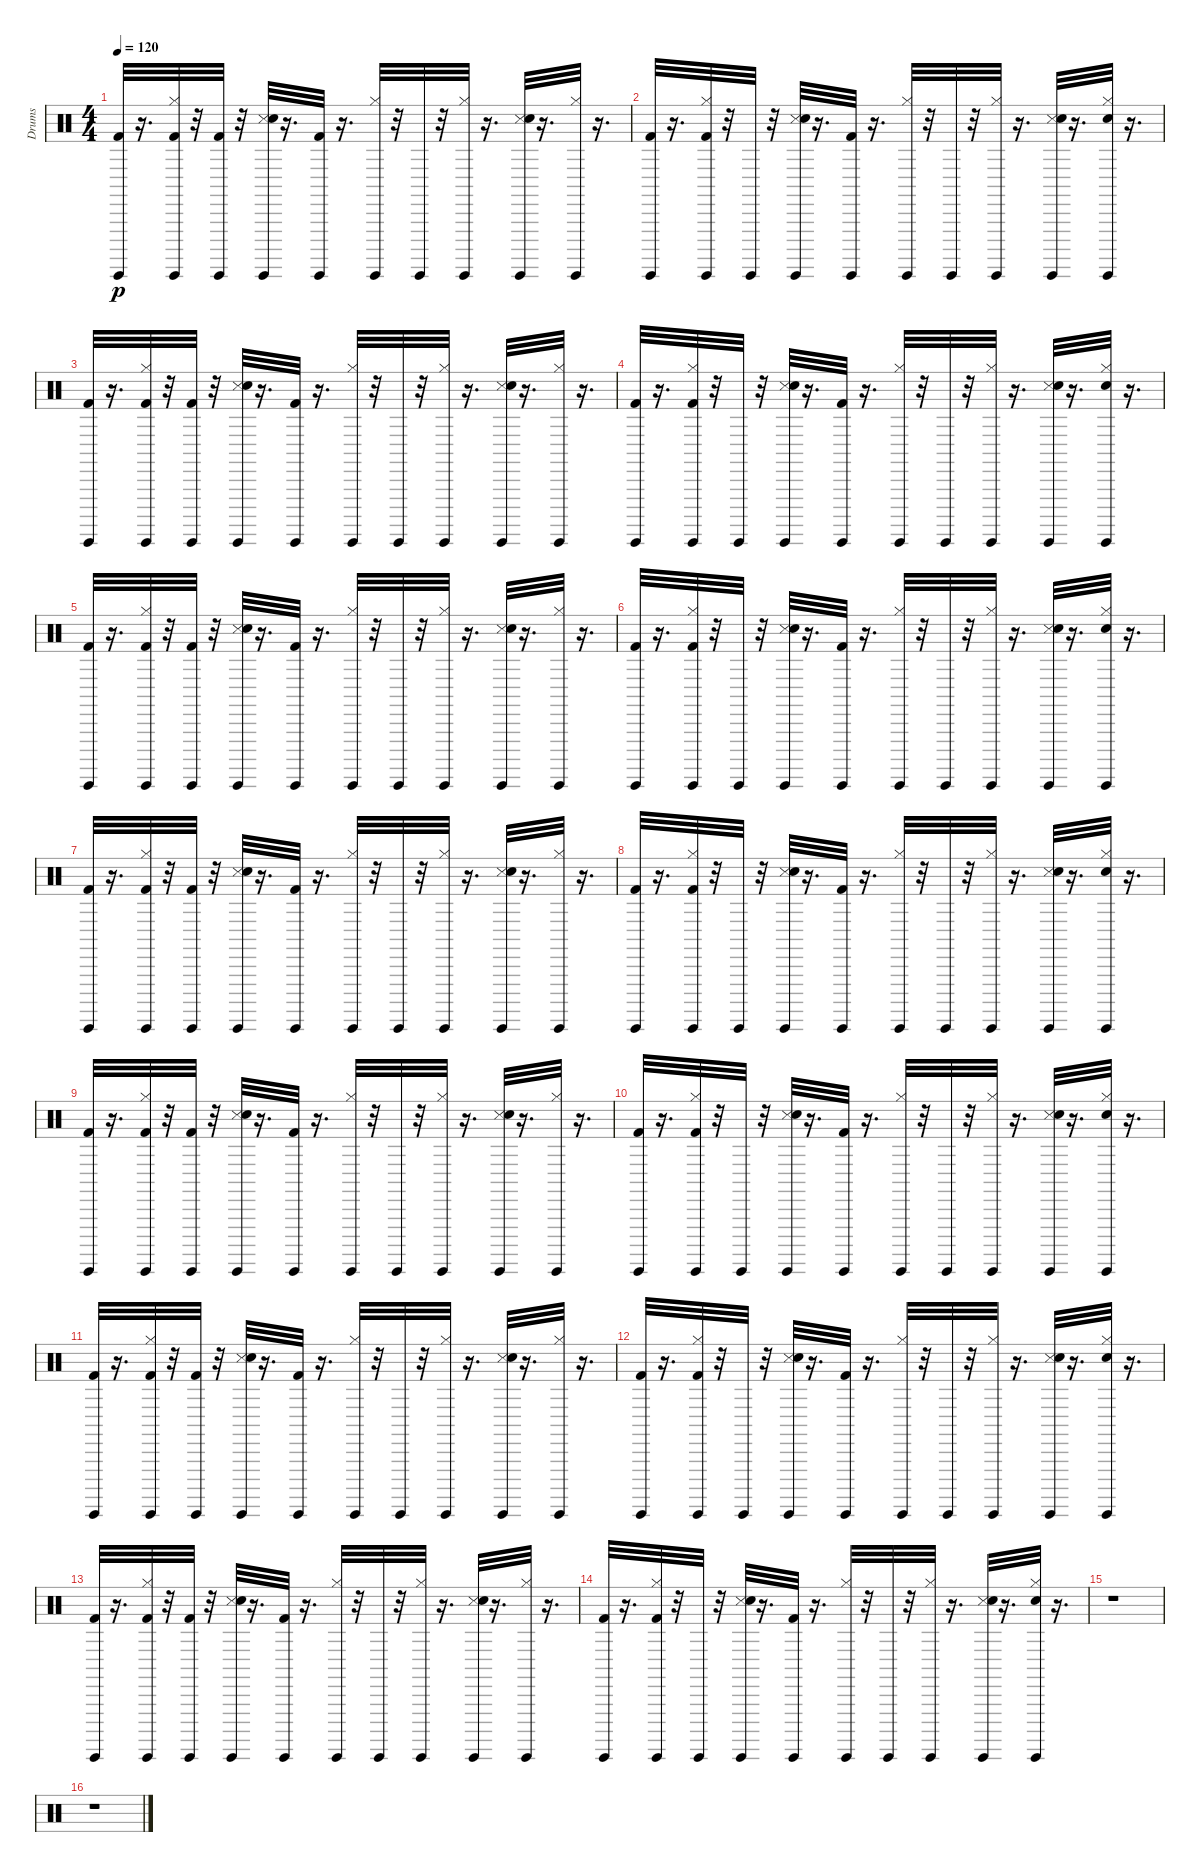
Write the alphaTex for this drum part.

\track ("Drums" "Drums") {instrument percussion}
\staff {score}
\articulation defaults
\ts (4 4)
\tempo 120
\clef neutral
\ks c
("Kick (hit) 2" "Guiro (hit)").32{dy p} r.16{d} ("Kick (hit) 2" "Hi-Hat (closed)" "Guiro (hit)").32 r.32 ("Kick (hit) 2" "Guiro (hit)").32 r.32 ("Metronome (hit)" "Snare (hit) 2" "Guiro (hit)").32 r.16{d} ("Kick (hit) 2" "Guiro (hit)").32 r.16{d} ("Hi-Hat (closed)" "Guiro (hit)").32 r.32 "Guiro (hit)".32 r.32 ("Hi-Hat (closed)" "Guiro (hit)").32 r.16{d} ("Metronome (hit)" "Snare (hit) 2" "Guiro (hit)").32 r.16{d} ("Hi-Hat (closed)" "Guiro (hit)").32 r.16{d} |
("Kick (hit) 2" "Guiro (hit)").32 r.16{d} ("Kick (hit) 2" "Hi-Hat (closed)" "Guiro (hit)").32 r.32 "Guiro (hit)".32 r.32 ("Metronome (hit)" "Snare (hit) 2" "Guiro (hit)").32 r.16{d} ("Kick (hit) 2" "Guiro (hit)").32 r.16{d} ("Hi-Hat (closed)" "Guiro (hit)").32 r.32 "Guiro (hit)".32 r.32 ("Hi-Hat (closed)" "Guiro (hit)").32 r.16{d} ("Metronome (hit)" "Snare (hit) 2" "Guiro (hit)").32 r.16{d} ("Snare (hit) 2" "Hi-Hat (closed)" "Guiro (hit)").32 r.16{d} |
("Kick (hit) 2" "Guiro (hit)").32 r.16{d} ("Kick (hit) 2" "Hi-Hat (closed)" "Guiro (hit)").32 r.32 ("Kick (hit) 2" "Guiro (hit)").32 r.32 ("Metronome (hit)" "Snare (hit) 2" "Guiro (hit)").32 r.16{d} ("Kick (hit) 2" "Guiro (hit)").32 r.16{d} ("Hi-Hat (closed)" "Guiro (hit)").32 r.32 "Guiro (hit)".32 r.32 ("Hi-Hat (closed)" "Guiro (hit)").32 r.16{d} ("Metronome (hit)" "Snare (hit) 2" "Guiro (hit)").32 r.16{d} ("Hi-Hat (closed)" "Guiro (hit)").32 r.16{d} |
("Kick (hit) 2" "Guiro (hit)").32 r.16{d} ("Kick (hit) 2" "Hi-Hat (closed)" "Guiro (hit)").32 r.32 "Guiro (hit)".32 r.32 ("Metronome (hit)" "Snare (hit) 2" "Guiro (hit)").32 r.16{d} ("Kick (hit) 2" "Guiro (hit)").32 r.16{d} ("Hi-Hat (closed)" "Guiro (hit)").32 r.32 "Guiro (hit)".32 r.32 ("Hi-Hat (closed)" "Guiro (hit)").32 r.16{d} ("Metronome (hit)" "Snare (hit) 2" "Guiro (hit)").32 r.16{d} ("Snare (hit) 2" "Hi-Hat (closed)" "Guiro (hit)").32 r.16{d} |
("Kick (hit) 2" "Guiro (hit)").32 r.16{d} ("Kick (hit) 2" "Hi-Hat (closed)" "Guiro (hit)").32 r.32 ("Kick (hit) 2" "Guiro (hit)").32 r.32 ("Metronome (hit)" "Snare (hit) 2" "Guiro (hit)").32 r.16{d} ("Kick (hit) 2" "Guiro (hit)").32 r.16{d} ("Hi-Hat (closed)" "Guiro (hit)").32 r.32 "Guiro (hit)".32 r.32 ("Hi-Hat (closed)" "Guiro (hit)").32 r.16{d} ("Metronome (hit)" "Snare (hit) 2" "Guiro (hit)").32 r.16{d} ("Hi-Hat (closed)" "Guiro (hit)").32 r.16{d} |
("Kick (hit) 2" "Guiro (hit)").32 r.16{d} ("Kick (hit) 2" "Hi-Hat (closed)" "Guiro (hit)").32 r.32 "Guiro (hit)".32 r.32 ("Metronome (hit)" "Snare (hit) 2" "Guiro (hit)").32 r.16{d} ("Kick (hit) 2" "Guiro (hit)").32 r.16{d} ("Hi-Hat (closed)" "Guiro (hit)").32 r.32 "Guiro (hit)".32 r.32 ("Hi-Hat (closed)" "Guiro (hit)").32 r.16{d} ("Metronome (hit)" "Snare (hit) 2" "Guiro (hit)").32 r.16{d} ("Snare (hit) 2" "Hi-Hat (closed)" "Guiro (hit)").32 r.16{d} |
("Kick (hit) 2" "Guiro (hit)").32 r.16{d} ("Kick (hit) 2" "Hi-Hat (closed)" "Guiro (hit)").32 r.32 ("Kick (hit) 2" "Guiro (hit)").32 r.32 ("Metronome (hit)" "Snare (hit) 2" "Guiro (hit)").32 r.16{d} ("Kick (hit) 2" "Guiro (hit)").32 r.16{d} ("Hi-Hat (closed)" "Guiro (hit)").32 r.32 "Guiro (hit)".32 r.32 ("Hi-Hat (closed)" "Guiro (hit)").32 r.16{d} ("Metronome (hit)" "Snare (hit) 2" "Guiro (hit)").32 r.16{d} ("Hi-Hat (closed)" "Guiro (hit)").32 r.16{d} |
("Kick (hit) 2" "Guiro (hit)").32 r.16{d} ("Kick (hit) 2" "Hi-Hat (closed)" "Guiro (hit)").32 r.32 "Guiro (hit)".32 r.32 ("Metronome (hit)" "Snare (hit) 2" "Guiro (hit)").32 r.16{d} ("Kick (hit) 2" "Guiro (hit)").32 r.16{d} ("Hi-Hat (closed)" "Guiro (hit)").32 r.32 "Guiro (hit)".32 r.32 ("Hi-Hat (closed)" "Guiro (hit)").32 r.16{d} ("Metronome (hit)" "Snare (hit) 2" "Guiro (hit)").32 r.16{d} ("Snare (hit) 2" "Hi-Hat (closed)" "Guiro (hit)").32 r.16{d} |
("Kick (hit) 2" "Guiro (hit)").32 r.16{d} ("Kick (hit) 2" "Hi-Hat (closed)" "Guiro (hit)").32 r.32 ("Kick (hit) 2" "Guiro (hit)").32 r.32 ("Metronome (hit)" "Snare (hit) 2" "Guiro (hit)").32 r.16{d} ("Kick (hit) 2" "Guiro (hit)").32 r.16{d} ("Hi-Hat (closed)" "Guiro (hit)").32 r.32 "Guiro (hit)".32 r.32 ("Hi-Hat (closed)" "Guiro (hit)").32 r.16{d} ("Metronome (hit)" "Snare (hit) 2" "Guiro (hit)").32 r.16{d} ("Hi-Hat (closed)" "Guiro (hit)").32 r.16{d} |
("Kick (hit) 2" "Guiro (hit)").32 r.16{d} ("Kick (hit) 2" "Hi-Hat (closed)" "Guiro (hit)").32 r.32 "Guiro (hit)".32 r.32 ("Metronome (hit)" "Snare (hit) 2" "Guiro (hit)").32 r.16{d} ("Kick (hit) 2" "Guiro (hit)").32 r.16{d} ("Hi-Hat (closed)" "Guiro (hit)").32 r.32 "Guiro (hit)".32 r.32 ("Hi-Hat (closed)" "Guiro (hit)").32 r.16{d} ("Metronome (hit)" "Snare (hit) 2" "Guiro (hit)").32 r.16{d} ("Snare (hit) 2" "Hi-Hat (closed)" "Guiro (hit)").32 r.16{d} |
("Kick (hit) 2" "Guiro (hit)").32 r.16{d} ("Kick (hit) 2" "Hi-Hat (closed)" "Guiro (hit)").32 r.32 ("Kick (hit) 2" "Guiro (hit)").32 r.32 ("Metronome (hit)" "Snare (hit) 2" "Guiro (hit)").32 r.16{d} ("Kick (hit) 2" "Guiro (hit)").32 r.16{d} ("Hi-Hat (closed)" "Guiro (hit)").32 r.32 "Guiro (hit)".32 r.32 ("Hi-Hat (closed)" "Guiro (hit)").32 r.16{d} ("Metronome (hit)" "Snare (hit) 2" "Guiro (hit)").32 r.16{d} ("Hi-Hat (closed)" "Guiro (hit)").32 r.16{d} |
("Kick (hit) 2" "Guiro (hit)").32 r.16{d} ("Kick (hit) 2" "Hi-Hat (closed)" "Guiro (hit)").32 r.32 "Guiro (hit)".32 r.32 ("Metronome (hit)" "Snare (hit) 2" "Guiro (hit)").32 r.16{d} ("Kick (hit) 2" "Guiro (hit)").32 r.16{d} ("Hi-Hat (closed)" "Guiro (hit)").32 r.32 "Guiro (hit)".32 r.32 ("Hi-Hat (closed)" "Guiro (hit)").32 r.16{d} ("Metronome (hit)" "Snare (hit) 2" "Guiro (hit)").32 r.16{d} ("Snare (hit) 2" "Hi-Hat (closed)" "Guiro (hit)").32 r.16{d} |
("Kick (hit) 2" "Guiro (hit)").32 r.16{d} ("Kick (hit) 2" "Hi-Hat (closed)" "Guiro (hit)").32 r.32 ("Kick (hit) 2" "Guiro (hit)").32 r.32 ("Metronome (hit)" "Snare (hit) 2" "Guiro (hit)").32 r.16{d} ("Kick (hit) 2" "Guiro (hit)").32 r.16{d} ("Hi-Hat (closed)" "Guiro (hit)").32 r.32 "Guiro (hit)".32 r.32 ("Hi-Hat (closed)" "Guiro (hit)").32 r.16{d} ("Metronome (hit)" "Snare (hit) 2" "Guiro (hit)").32 r.16{d} ("Hi-Hat (closed)" "Guiro (hit)").32 r.16{d} |
("Kick (hit) 2" "Guiro (hit)").32 r.16{d} ("Kick (hit) 2" "Hi-Hat (closed)" "Guiro (hit)").32 r.32 "Guiro (hit)".32 r.32 ("Metronome (hit)" "Snare (hit) 2" "Guiro (hit)").32 r.16{d} ("Kick (hit) 2" "Guiro (hit)").32 r.16{d} ("Hi-Hat (closed)" "Guiro (hit)").32 r.32 "Guiro (hit)".32 r.32 ("Hi-Hat (closed)" "Guiro (hit)").32 r.16{d} ("Metronome (hit)" "Snare (hit) 2" "Guiro (hit)").32 r.16{d} ("Snare (hit) 2" "Hi-Hat (closed)" "Guiro (hit)").32 r.16{d} |
r.1 |
r.1
